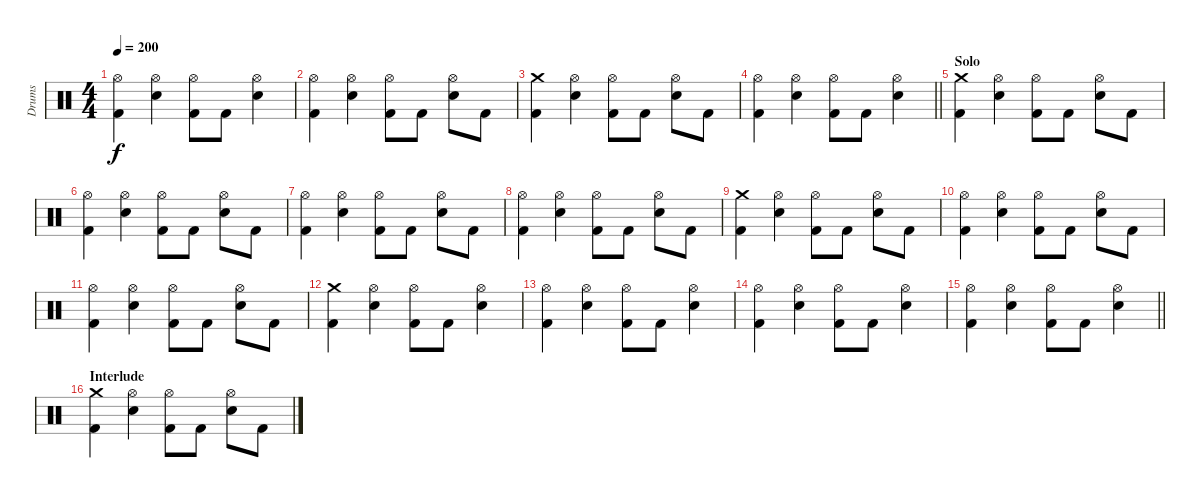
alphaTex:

\track ("Drums" "Drums") {instrument percussion}
\staff {score}
\articulation defaults
\ts (4 4)
\tempo 200
\clef neutral
\ks c
("Hi-Hat (open)" "Kick (hit) 2").4{dy f} ("Hi-Hat (open)" "Electric Snare (hit)").4 ("Hi-Hat (open)" "Kick (hit) 2").8 "Kick (hit) 2".8 ("Hi-Hat (open)" "Electric Snare (hit)").4 |
("Hi-Hat (open)" "Kick (hit) 2").4 ("Hi-Hat (open)" "Electric Snare (hit)").4 ("Hi-Hat (open)" "Kick (hit) 2").8 "Kick (hit) 2".8 ("Hi-Hat (open)" "Electric Snare (hit)").8 "Kick (hit) 2".8 |
("Crash medium (hit)" "Kick (hit) 2").4 ("Hi-Hat (open)" "Electric Snare (hit)").4 ("Hi-Hat (open)" "Kick (hit) 2").8 "Kick (hit) 2".8 ("Hi-Hat (open)" "Electric Snare (hit)").8 "Kick (hit) 2".8 |
\barLineRight lightlight
("Hi-Hat (open)" "Kick (hit) 2").4 ("Hi-Hat (open)" "Electric Snare (hit)").4 ("Hi-Hat (open)" "Kick (hit) 2").8 "Kick (hit) 2".8 ("Hi-Hat (open)" "Electric Snare (hit)").4 |
\section ("" "Solo")
("Crash medium (hit)" "Kick (hit) 2").4 ("Hi-Hat (open)" "Electric Snare (hit)").4 ("Hi-Hat (open)" "Kick (hit) 2").8 "Kick (hit) 2".8 ("Hi-Hat (open)" "Electric Snare (hit)").8 "Kick (hit) 2".8 |
("Hi-Hat (open)" "Kick (hit) 2").4 ("Hi-Hat (open)" "Electric Snare (hit)").4 ("Hi-Hat (open)" "Kick (hit) 2").8 "Kick (hit) 2".8 ("Hi-Hat (open)" "Electric Snare (hit)").8 "Kick (hit) 2".8 |
("Hi-Hat (open)" "Kick (hit) 2").4 ("Hi-Hat (open)" "Electric Snare (hit)").4 ("Hi-Hat (open)" "Kick (hit) 2").8 "Kick (hit) 2".8 ("Hi-Hat (open)" "Electric Snare (hit)").8 "Kick (hit) 2".8 |
("Hi-Hat (open)" "Kick (hit) 2").4 ("Hi-Hat (open)" "Electric Snare (hit)").4 ("Hi-Hat (open)" "Kick (hit) 2").8 "Kick (hit) 2".8 ("Hi-Hat (open)" "Electric Snare (hit)").8 "Kick (hit) 2".8 |
("Crash medium (hit)" "Kick (hit) 2").4 ("Hi-Hat (open)" "Electric Snare (hit)").4 ("Hi-Hat (open)" "Kick (hit) 2").8 "Kick (hit) 2".8 ("Hi-Hat (open)" "Electric Snare (hit)").8 "Kick (hit) 2".8 |
("Hi-Hat (open)" "Kick (hit) 2").4 ("Hi-Hat (open)" "Electric Snare (hit)").4 ("Hi-Hat (open)" "Kick (hit) 2").8 "Kick (hit) 2".8 ("Hi-Hat (open)" "Electric Snare (hit)").8 "Kick (hit) 2".8 |
("Hi-Hat (open)" "Kick (hit) 2").4 ("Hi-Hat (open)" "Electric Snare (hit)").4 ("Hi-Hat (open)" "Kick (hit) 2").8 "Kick (hit) 2".8 ("Hi-Hat (open)" "Electric Snare (hit)").8 "Kick (hit) 2".8 |
("Crash medium (hit)" "Kick (hit) 2").4 ("Hi-Hat (open)" "Electric Snare (hit)").4 ("Hi-Hat (open)" "Kick (hit) 2").8 "Kick (hit) 2".8 ("Hi-Hat (open)" "Electric Snare (hit)").4 |
("Hi-Hat (open)" "Kick (hit) 2").4 ("Hi-Hat (open)" "Electric Snare (hit)").4 ("Hi-Hat (open)" "Kick (hit) 2").8 "Kick (hit) 2".8 ("Hi-Hat (open)" "Electric Snare (hit)").4 |
("Hi-Hat (open)" "Kick (hit) 2").4 ("Hi-Hat (open)" "Electric Snare (hit)").4 ("Hi-Hat (open)" "Kick (hit) 2").8 "Kick (hit) 2".8 ("Hi-Hat (open)" "Electric Snare (hit)").4 |
\barLineRight lightlight
("Hi-Hat (open)" "Kick (hit) 2").4 ("Hi-Hat (open)" "Electric Snare (hit)").4 ("Hi-Hat (open)" "Kick (hit) 2").8 "Kick (hit) 2".8 ("Hi-Hat (open)" "Electric Snare (hit)").4 |
\section ("" "Interlude")
("Crash medium (hit)" "Kick (hit) 2").4 ("Hi-Hat (open)" "Electric Snare (hit)").4 ("Hi-Hat (open)" "Kick (hit) 2").8 "Kick (hit) 2".8 ("Hi-Hat (open)" "Electric Snare (hit)").8 "Kick (hit) 2".8
